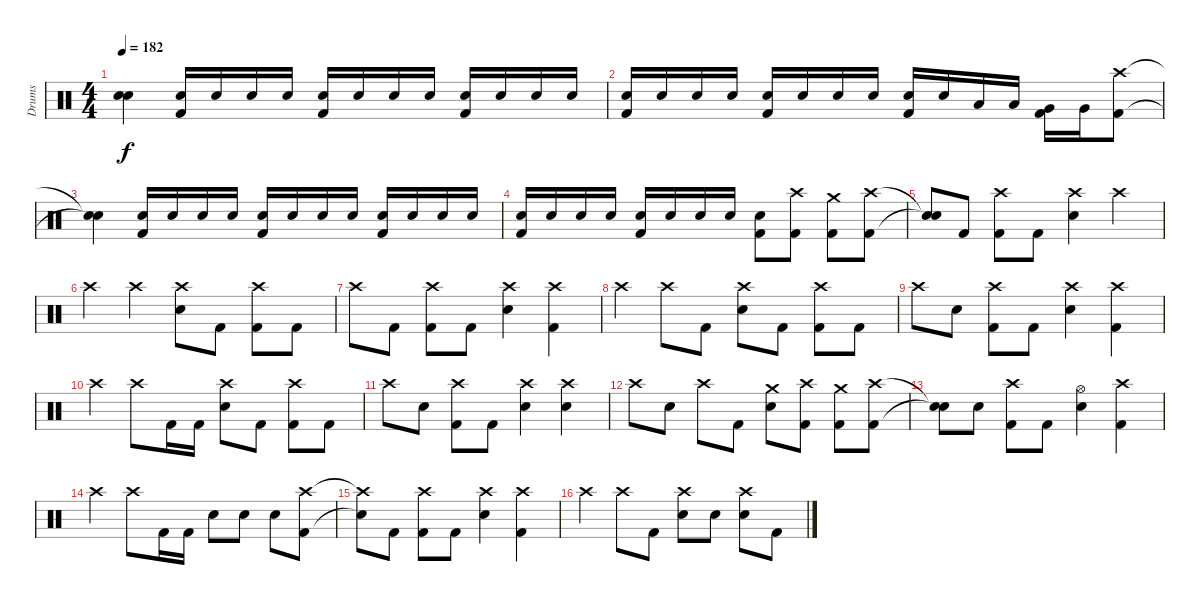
\track ("Drums" "Drums") {instrument percussion}
\staff {score}
\articulation defaults
\ts (4 4)
\tempo 182
\clef neutral
\ks c
("Snare (hit)"{t} "Snare (hit)"{t}).4{dy f} ("Electric Snare (hit)" "Kick (hit) 2").16 "Electric Snare (hit)".16 "Electric Snare (hit)".16 "Electric Snare (hit)".16 ("Electric Snare (hit)" "Kick (hit) 2").16 "Electric Snare (hit)".16 "Electric Snare (hit)".16 "Electric Snare (hit)".16 ("Electric Snare (hit)" "Kick (hit) 2").16 "Electric Snare (hit)".16 "Electric Snare (hit)".16 "Electric Snare (hit)".16 |
("Electric Snare (hit)" "Kick (hit) 2").16 "Electric Snare (hit)".16 "Electric Snare (hit)".16 "Electric Snare (hit)".16 ("Electric Snare (hit)" "Kick (hit) 2").16 "Electric Snare (hit)".16 "Electric Snare (hit)".16 "Electric Snare (hit)".16 ("Electric Snare (hit)" "Kick (hit) 2").16 "Electric Snare (hit)".16 "Low Tom (hit)".16 "Low Tom (hit)".16 ("Very Low Tom (hit)" "Kick (hit) 2").16 "Very Low Tom (hit)".16 ("Crash high (hit)" "Kick (hit) 2").8 |
("Snare (hit)"{t} "Snare (hit)"{t}).4 ("Electric Snare (hit)" "Kick (hit) 2").16 "Electric Snare (hit)".16 "Electric Snare (hit)".16 "Electric Snare (hit)".16 ("Electric Snare (hit)" "Kick (hit) 2").16 "Electric Snare (hit)".16 "Electric Snare (hit)".16 "Electric Snare (hit)".16 ("Electric Snare (hit)" "Kick (hit) 2").16 "Electric Snare (hit)".16 "Electric Snare (hit)".16 "Electric Snare (hit)".16 |
("Electric Snare (hit)" "Kick (hit) 2").16 "Electric Snare (hit)".16 "Electric Snare (hit)".16 "Electric Snare (hit)".16 ("Electric Snare (hit)" "Kick (hit) 2").16 "Electric Snare (hit)".16 "Electric Snare (hit)".16 "Electric Snare (hit)".16 ("Electric Snare (hit)" "Kick (hit) 2").8 ("Crash high (hit)" "Kick (hit) 2").8 ("Crash medium (hit)" "Kick (hit) 2").8 ("Crash high (hit)" "Kick (hit) 2").8 |
("Snare (hit)"{t} "Snare (hit)"{t}).8 "Kick (hit) 2".8 ("Crash high (hit)" "Kick (hit) 2").8 "Kick (hit) 2".8 ("Crash high (hit)" "Electric Snare (hit)").4 "Crash high (hit)".4 |
"Crash high (hit)".4 "Crash high (hit)".4 ("Crash high (hit)" "Electric Snare (hit)").8 "Kick (hit) 2".8 ("Crash high (hit)" "Kick (hit) 2").8 "Kick (hit) 2".8 |
"Crash high (hit)".8 "Kick (hit) 2".8 ("Crash high (hit)" "Kick (hit) 2").8 "Kick (hit) 2".8 ("Crash high (hit)" "Electric Snare (hit)").4 ("Crash high (hit)" "Kick (hit) 2").4 |
"Crash high (hit)".4 "Crash high (hit)".8 "Kick (hit) 2".8 ("Crash high (hit)" "Electric Snare (hit)").8 "Kick (hit) 2".8 ("Crash high (hit)" "Kick (hit) 2").8 "Kick (hit) 2".8 |
"Crash high (hit)".8 "Electric Snare (hit)".8 ("Crash high (hit)" "Kick (hit) 2").8 "Kick (hit) 2".8 ("Crash high (hit)" "Electric Snare (hit)").4 ("Crash high (hit)" "Kick (hit) 2").4 |
"Crash high (hit)".4 "Crash high (hit)".8 "Kick (hit) 2".16 "Kick (hit) 2".16 ("Crash high (hit)" "Electric Snare (hit)").8 "Kick (hit) 2".8 ("Crash high (hit)" "Kick (hit) 2").8 "Kick (hit) 2".8 |
"Crash high (hit)".8 "Electric Snare (hit)".8 ("Crash high (hit)" "Kick (hit) 2").8 "Kick (hit) 2".8 ("Crash high (hit)" "Electric Snare (hit)").4 ("Crash high (hit)" "Electric Snare (hit)").4 |
"Crash high (hit)".8 "Electric Snare (hit)".8 "Crash high (hit)".8 "Kick (hit) 2".8 ("Crash medium (hit)" "Electric Snare (hit)").8 ("Crash high (hit)" "Kick (hit) 2").8 ("Crash medium (hit)" "Kick (hit) 2").8 ("Crash high (hit)" "Kick (hit) 2").8 |
("Snare (hit)"{t} "Snare (hit)"{t}).8 "Electric Snare (hit)".8 ("Crash high (hit)" "Kick (hit) 2").8 "Kick (hit) 2".8 ("Hi-Hat (open)" "Electric Snare (hit)").4 ("Crash high (hit)" "Kick (hit) 2").4 |
"Crash high (hit)".4 "Crash high (hit)".8 "Kick (hit) 2".16 "Kick (hit) 2".16 "Electric Snare (hit)".8 "Electric Snare (hit)".8 "Electric Snare (hit)".8 ("Crash high (hit)" "Kick (hit) 2").8 |
("Crash high (hit)"{t} "Snare (hit)"{t}).8 "Kick (hit) 2".8 ("Crash high (hit)" "Kick (hit) 2").8 "Kick (hit) 2".8 ("Crash high (hit)" "Electric Snare (hit)").4 ("Crash high (hit)" "Kick (hit) 2").4 |
"Crash high (hit)".4 "Crash high (hit)".8 "Kick (hit) 2".8 ("Crash high (hit)" "Electric Snare (hit)").8 "Electric Snare (hit)".8 ("Crash high (hit)" "Electric Snare (hit)").8 "Kick (hit) 2".8
